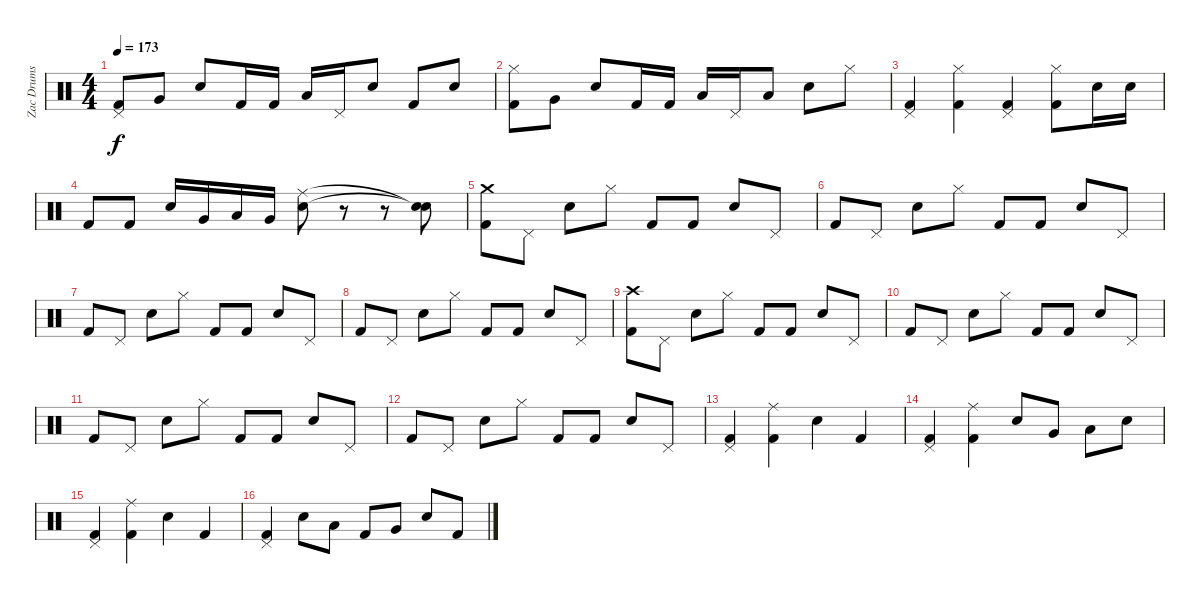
\track ("Zac Drums" "Zac Drums") {instrument percussion}
\staff {score}
\articulation defaults
\ts (4 4)
\tempo 173
\clef neutral
\ks c
("Pedal Hi-Hat (hit)" "Kick (hit) 2").8{dy f} "Very Low Tom (hit)".8 "Electric Snare (hit)".8 "Kick (hit) 2".16 "Kick (hit) 2".16 "Low Tom (hit)".16 "Pedal Hi-Hat (hit)".16 "Electric Snare (hit)".8 "Kick (hit) 2".8 "Electric Snare (hit)".8 |
("Hi-Hat (closed)" "Kick (hit) 2").8 "Very Low Tom (hit)".8 "Electric Snare (hit)".8 "Kick (hit) 2".16 "Kick (hit) 2".16 "Low Tom (hit)".16 "Pedal Hi-Hat (hit)".16 "Low Tom (hit)".8 "Electric Snare (hit)".8 "Hi-Hat (closed)".8 |
("Pedal Hi-Hat (hit)" "Kick (hit) 2").4 ("Hi-Hat (closed)" "Kick (hit) 2").4 ("Pedal Hi-Hat (hit)" "Kick (hit) 2").4 ("Hi-Hat (closed)" "Kick (hit) 2").8 "Electric Snare (hit)".16 "Electric Snare (hit)".16 |
"Kick (hit) 2".8 "Kick (hit) 2".8 "Electric Snare (hit)".16 "Very Low Tom (hit)".16 "Low Tom (hit)".16 "Very Low Tom (hit)".16 ("Ride (middle)" "Electric Snare (hit)").8 r.8 r.8 ("Snare (hit)"{t} "Snare (hit)"{t}).8 |
("Crash medium (hit)" "Kick (hit) 2").8 "Pedal Hi-Hat (hit)".8 "Electric Snare (hit)".8 "Hi-Hat (closed)".8 "Kick (hit) 2".8 "Kick (hit) 2".8 "Electric Snare (hit)".8 "Pedal Hi-Hat (hit)".8 |
"Kick (hit) 2".8 "Pedal Hi-Hat (hit)".8 "Electric Snare (hit)".8 "Hi-Hat (closed)".8 "Kick (hit) 2".8 "Kick (hit) 2".8 "Electric Snare (hit)".8 "Pedal Hi-Hat (hit)".8 |
"Kick (hit) 2".8 "Pedal Hi-Hat (hit)".8 "Electric Snare (hit)".8 "Hi-Hat (closed)".8 "Kick (hit) 2".8 "Kick (hit) 2".8 "Electric Snare (hit)".8 "Pedal Hi-Hat (hit)".8 |
"Kick (hit) 2".8 "Pedal Hi-Hat (hit)".8 "Electric Snare (hit)".8 "Hi-Hat (closed)".8 "Kick (hit) 2".8 "Kick (hit) 2".8 "Electric Snare (hit)".8 "Pedal Hi-Hat (hit)".8 |
("Crash high (hit)" "Kick (hit) 2").8 "Pedal Hi-Hat (hit)".8 "Electric Snare (hit)".8 "Hi-Hat (closed)".8 "Kick (hit) 2".8 "Kick (hit) 2".8 "Electric Snare (hit)".8 "Pedal Hi-Hat (hit)".8 |
"Kick (hit) 2".8 "Pedal Hi-Hat (hit)".8 "Electric Snare (hit)".8 "Hi-Hat (closed)".8 "Kick (hit) 2".8 "Kick (hit) 2".8 "Electric Snare (hit)".8 "Pedal Hi-Hat (hit)".8 |
"Kick (hit) 2".8 "Pedal Hi-Hat (hit)".8 "Electric Snare (hit)".8 "Hi-Hat (closed)".8 "Kick (hit) 2".8 "Kick (hit) 2".8 "Electric Snare (hit)".8 "Pedal Hi-Hat (hit)".8 |
"Kick (hit) 2".8 "Pedal Hi-Hat (hit)".8 "Electric Snare (hit)".8 "Hi-Hat (closed)".8 "Kick (hit) 2".8 "Kick (hit) 2".8 "Electric Snare (hit)".8 "Pedal Hi-Hat (hit)".8 |
("Pedal Hi-Hat (hit)" "Kick (hit) 2").4 ("Ride (middle)" "Kick (hit) 2").4 "Electric Snare (hit)".4 "Kick (hit) 2".4 |
("Pedal Hi-Hat (hit)" "Kick (hit) 2").4 ("Ride (middle)" "Kick (hit) 2").4 "Electric Snare (hit)".8 "Very Low Tom (hit)".8 "Low Tom (hit)".8 "Electric Snare (hit)".8 |
("Pedal Hi-Hat (hit)" "Kick (hit) 2").4 ("Ride (middle)" "Kick (hit) 2").4 "Electric Snare (hit)".4 "Kick (hit) 2".4 |
("Pedal Hi-Hat (hit)" "Kick (hit) 2").4 "Electric Snare (hit)".8 "Low Tom (hit)".8 "Kick (hit) 2".8 "Very Low Tom (hit)".8 "Electric Snare (hit)".8 "Kick (hit) 2".8
